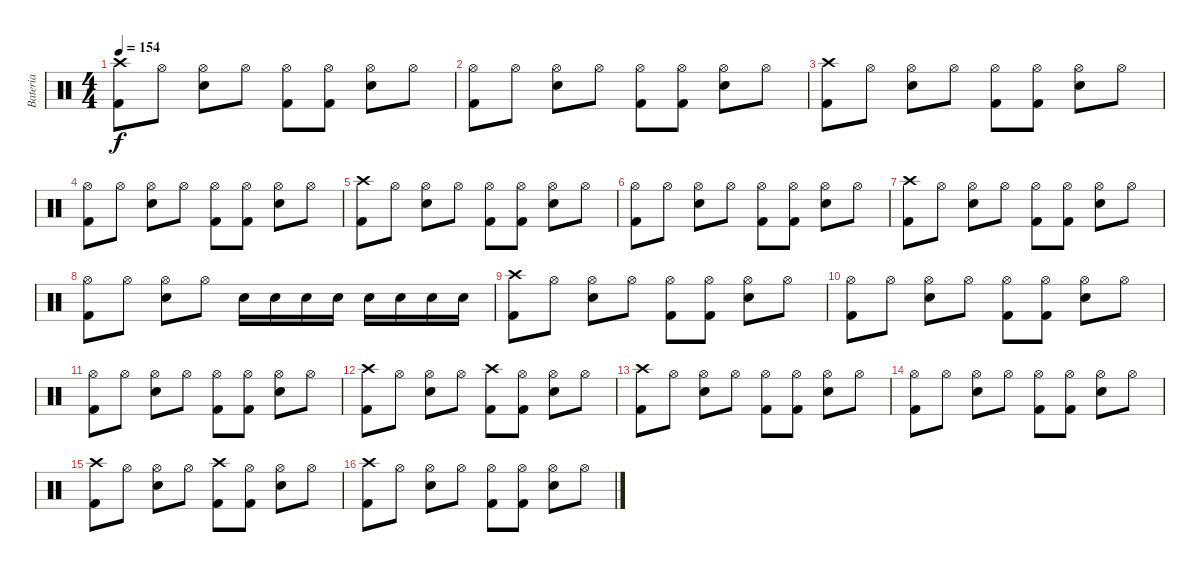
\track ("Bateria" "Bateria") {instrument percussion}
\staff {score}
\articulation defaults
\ts (4 4)
\tempo 154
\clef neutral
\ks c
("Kick (hit) 2" "Crash high (hit)").8{dy f} "Hi-Hat (open)".8 ("Electric Snare (hit)" "Hi-Hat (open)").8 "Hi-Hat (open)".8 ("Kick (hit) 2" "Hi-Hat (open)").8 ("Kick (hit) 2" "Hi-Hat (open)").8 ("Electric Snare (hit)" "Hi-Hat (open)").8 "Hi-Hat (open)".8 |
("Kick (hit) 2" "Hi-Hat (open)").8 "Hi-Hat (open)".8 ("Electric Snare (hit)" "Hi-Hat (open)").8 "Hi-Hat (open)".8 ("Kick (hit) 2" "Hi-Hat (open)").8 ("Kick (hit) 2" "Hi-Hat (open)").8 ("Electric Snare (hit)" "Hi-Hat (open)").8 "Hi-Hat (open)".8 |
("Kick (hit) 2" "Crash high (hit)").8 "Hi-Hat (open)".8 ("Electric Snare (hit)" "Hi-Hat (open)").8 "Hi-Hat (open)".8 ("Kick (hit) 2" "Hi-Hat (open)").8 ("Kick (hit) 2" "Hi-Hat (open)").8 ("Electric Snare (hit)" "Hi-Hat (open)").8 "Hi-Hat (open)".8 |
("Kick (hit) 2" "Hi-Hat (open)").8 "Hi-Hat (open)".8 ("Electric Snare (hit)" "Hi-Hat (open)").8 "Hi-Hat (open)".8 ("Kick (hit) 2" "Hi-Hat (open)").8 ("Kick (hit) 2" "Hi-Hat (open)").8 ("Electric Snare (hit)" "Hi-Hat (open)").8 "Hi-Hat (open)".8 |
("Kick (hit) 2" "Crash high (hit)").8 "Hi-Hat (open)".8 ("Electric Snare (hit)" "Hi-Hat (open)").8 "Hi-Hat (open)".8 ("Kick (hit) 2" "Hi-Hat (open)").8 ("Kick (hit) 2" "Hi-Hat (open)").8 ("Electric Snare (hit)" "Hi-Hat (open)").8 "Hi-Hat (open)".8 |
("Kick (hit) 2" "Hi-Hat (open)").8 "Hi-Hat (open)".8 ("Electric Snare (hit)" "Hi-Hat (open)").8 "Hi-Hat (open)".8 ("Kick (hit) 2" "Hi-Hat (open)").8 ("Kick (hit) 2" "Hi-Hat (open)").8 ("Electric Snare (hit)" "Hi-Hat (open)").8 "Hi-Hat (open)".8 |
("Kick (hit) 2" "Crash high (hit)").8 "Hi-Hat (open)".8 ("Electric Snare (hit)" "Hi-Hat (open)").8 "Hi-Hat (open)".8 ("Kick (hit) 2" "Hi-Hat (open)").8 ("Kick (hit) 2" "Hi-Hat (open)").8 ("Electric Snare (hit)" "Hi-Hat (open)").8 "Hi-Hat (open)".8 |
("Kick (hit) 2" "Hi-Hat (open)").8 "Hi-Hat (open)".8 ("Electric Snare (hit)" "Hi-Hat (open)").8 "Hi-Hat (open)".8 "Electric Snare (hit)".16 "Electric Snare (hit)".16 "Electric Snare (hit)".16 "Electric Snare (hit)".16 "Electric Snare (hit)".16 "Electric Snare (hit)".16 "Electric Snare (hit)".16 "Electric Snare (hit)".16 |
("Kick (hit) 2" "Crash high (hit)").8 "Hi-Hat (open)".8 ("Electric Snare (hit)" "Hi-Hat (open)").8 "Hi-Hat (open)".8 ("Kick (hit) 2" "Hi-Hat (open)").8 ("Kick (hit) 2" "Hi-Hat (open)").8 ("Electric Snare (hit)" "Hi-Hat (open)").8 "Hi-Hat (open)".8 |
("Kick (hit) 2" "Hi-Hat (open)").8 "Hi-Hat (open)".8 ("Electric Snare (hit)" "Hi-Hat (open)").8 "Hi-Hat (open)".8 ("Kick (hit) 2" "Hi-Hat (open)").8 ("Kick (hit) 2" "Hi-Hat (open)").8 ("Electric Snare (hit)" "Hi-Hat (open)").8 "Hi-Hat (open)".8 |
("Kick (hit) 2" "Hi-Hat (open)").8 "Hi-Hat (open)".8 ("Electric Snare (hit)" "Hi-Hat (open)").8 "Hi-Hat (open)".8 ("Kick (hit) 2" "Hi-Hat (open)").8 ("Kick (hit) 2" "Hi-Hat (open)").8 ("Electric Snare (hit)" "Hi-Hat (open)").8 "Hi-Hat (open)".8 |
("Kick (hit) 2" "Crash high (hit)").8 "Hi-Hat (open)".8 ("Electric Snare (hit)" "Hi-Hat (open)").8 "Hi-Hat (open)".8 ("Kick (hit) 2" "Crash high (hit)").8 ("Kick (hit) 2" "Hi-Hat (open)").8 ("Electric Snare (hit)" "Hi-Hat (open)").8 "Hi-Hat (open)".8 |
("Kick (hit) 2" "Crash high (hit)").8 "Hi-Hat (open)".8 ("Electric Snare (hit)" "Hi-Hat (open)").8 "Hi-Hat (open)".8 ("Kick (hit) 2" "Hi-Hat (open)").8 ("Kick (hit) 2" "Hi-Hat (open)").8 ("Electric Snare (hit)" "Hi-Hat (open)").8 "Hi-Hat (open)".8 |
("Kick (hit) 2" "Hi-Hat (open)").8 "Hi-Hat (open)".8 ("Electric Snare (hit)" "Hi-Hat (open)").8 "Hi-Hat (open)".8 ("Kick (hit) 2" "Hi-Hat (open)").8 ("Kick (hit) 2" "Hi-Hat (open)").8 ("Electric Snare (hit)" "Hi-Hat (open)").8 "Hi-Hat (open)".8 |
("Kick (hit) 2" "Crash high (hit)").8 "Hi-Hat (open)".8 ("Electric Snare (hit)" "Hi-Hat (open)").8 "Hi-Hat (open)".8 ("Kick (hit) 2" "Crash high (hit)").8 ("Kick (hit) 2" "Hi-Hat (open)").8 ("Electric Snare (hit)" "Hi-Hat (open)").8 "Hi-Hat (open)".8 |
("Kick (hit) 2" "Crash high (hit)").8 "Hi-Hat (open)".8 ("Electric Snare (hit)" "Hi-Hat (open)").8 "Hi-Hat (open)".8 ("Kick (hit) 2" "Hi-Hat (open)").8 ("Kick (hit) 2" "Hi-Hat (open)").8 ("Electric Snare (hit)" "Hi-Hat (open)").8 "Hi-Hat (open)".8
